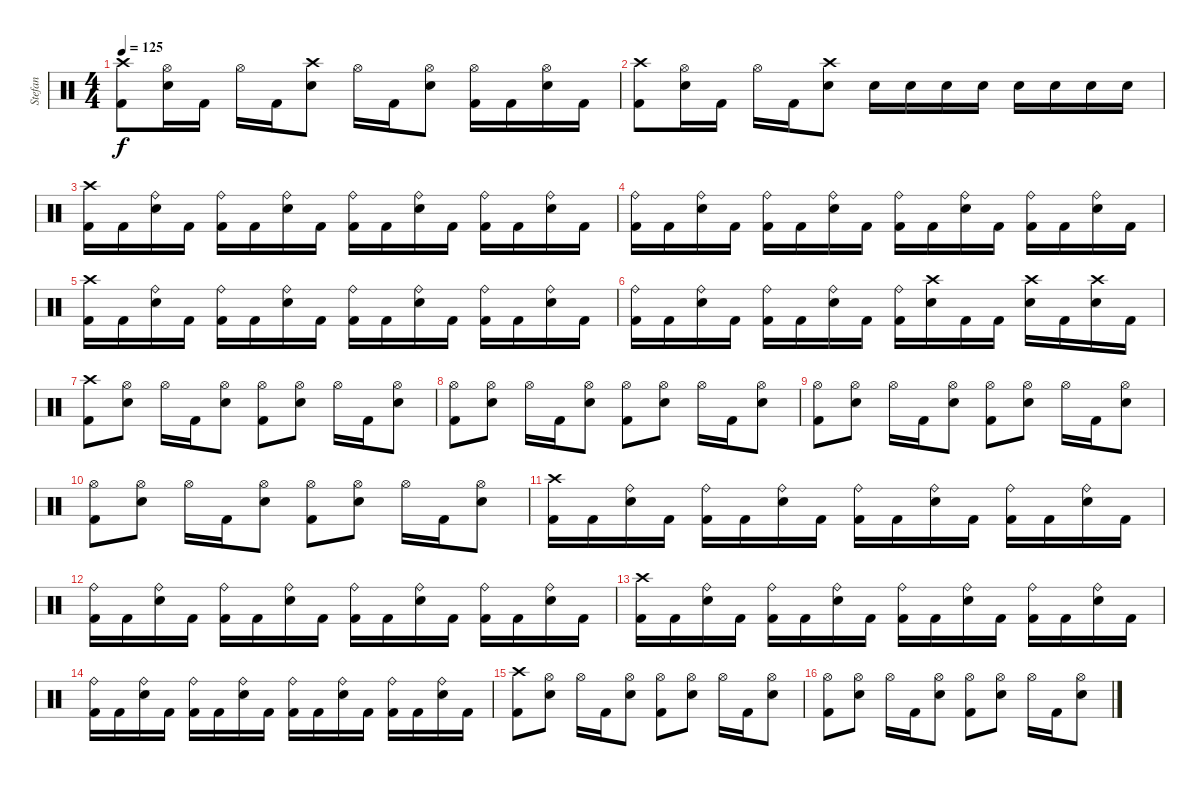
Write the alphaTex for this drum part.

\track ("Stefan" "Stefan") {instrument percussion}
\staff {score}
\articulation defaults
\ts (4 4)
\tempo 125
\clef neutral
\ks c
("Crash high (hit)" "Kick (hit) 2").8{dy f} ("Hi-Hat (open)" "Electric Snare (hit)").16 "Kick (hit) 2".16 "Hi-Hat (open)".16 "Kick (hit) 2".16 ("Crash high (hit)" "Electric Snare (hit)").8 "Hi-Hat (open)".16 "Kick (hit) 2".16 ("Hi-Hat (open)" "Electric Snare (hit)").8 ("Hi-Hat (open)" "Kick (hit) 2").16 "Kick (hit) 2".16 ("Hi-Hat (open)" "Electric Snare (hit)").16 "Kick (hit) 2".16 |
("Crash high (hit)" "Kick (hit) 2").8 ("Hi-Hat (open)" "Electric Snare (hit)").16 "Kick (hit) 2".16 "Hi-Hat (open)".16 "Kick (hit) 2".16 ("Crash high (hit)" "Electric Snare (hit)").8 "Electric Snare (hit)".16 "Electric Snare (hit)".16 "Electric Snare (hit)".16 "Electric Snare (hit)".16 "Electric Snare (hit)".16 "Electric Snare (hit)".16 "Electric Snare (hit)".16 "Electric Snare (hit)".16 |
("Crash high (hit)" "Kick (hit) 2").16 "Kick (hit) 2".16 ("Ride (bell)" "Electric Snare (hit)").16 "Kick (hit) 2".16 ("Ride (bell)" "Kick (hit) 2").16 "Kick (hit) 2".16 ("Ride (bell)" "Electric Snare (hit)").16 "Kick (hit) 2".16 ("Ride (bell)" "Kick (hit) 2").16 "Kick (hit) 2".16 ("Ride (bell)" "Electric Snare (hit)").16 "Kick (hit) 2".16 ("Ride (bell)" "Kick (hit) 2").16 "Kick (hit) 2".16 ("Ride (bell)" "Electric Snare (hit)").16 "Kick (hit) 2".16 |
("Ride (bell)" "Kick (hit) 2").16 "Kick (hit) 2".16 ("Ride (bell)" "Electric Snare (hit)").16 "Kick (hit) 2".16 ("Ride (bell)" "Kick (hit) 2").16 "Kick (hit) 2".16 ("Ride (bell)" "Electric Snare (hit)").16 "Kick (hit) 2".16 ("Ride (bell)" "Kick (hit) 2").16 "Kick (hit) 2".16 ("Ride (bell)" "Electric Snare (hit)").16 "Kick (hit) 2".16 ("Ride (bell)" "Kick (hit) 2").16 "Kick (hit) 2".16 ("Ride (bell)" "Electric Snare (hit)").16 "Kick (hit) 2".16 |
("Crash high (hit)" "Kick (hit) 2").16 "Kick (hit) 2".16 ("Ride (bell)" "Electric Snare (hit)").16 "Kick (hit) 2".16 ("Ride (bell)" "Kick (hit) 2").16 "Kick (hit) 2".16 ("Ride (bell)" "Electric Snare (hit)").16 "Kick (hit) 2".16 ("Ride (bell)" "Kick (hit) 2").16 "Kick (hit) 2".16 ("Ride (bell)" "Electric Snare (hit)").16 "Kick (hit) 2".16 ("Ride (bell)" "Kick (hit) 2").16 "Kick (hit) 2".16 ("Ride (bell)" "Electric Snare (hit)").16 "Kick (hit) 2".16 |
("Ride (bell)" "Kick (hit) 2").16 "Kick (hit) 2".16 ("Ride (bell)" "Electric Snare (hit)").16 "Kick (hit) 2".16 ("Ride (bell)" "Kick (hit) 2").16 "Kick (hit) 2".16 ("Ride (bell)" "Electric Snare (hit)").16 "Kick (hit) 2".16 ("Ride (bell)" "Kick (hit) 2").16 ("Crash high (hit)" "Electric Snare (hit)").16 "Kick (hit) 2".16 "Kick (hit) 2".16 ("Crash high (hit)" "Electric Snare (hit)").16 "Kick (hit) 2".16 ("Crash high (hit)" "Electric Snare (hit)").16 "Kick (hit) 2".16 |
("Crash high (hit)" "Kick (hit) 2").8 ("Hi-Hat (open)" "Electric Snare (hit)").8 "Hi-Hat (open)".16 "Kick (hit) 2".16 ("Hi-Hat (open)" "Electric Snare (hit)").8 ("Hi-Hat (open)" "Kick (hit) 2").8 ("Hi-Hat (open)" "Electric Snare (hit)").8 "Hi-Hat (open)".16 "Kick (hit) 2".16 ("Hi-Hat (open)" "Electric Snare (hit)").8 |
("Hi-Hat (open)" "Kick (hit) 2").8 ("Hi-Hat (open)" "Electric Snare (hit)").8 "Hi-Hat (open)".16 "Kick (hit) 2".16 ("Hi-Hat (open)" "Electric Snare (hit)").8 ("Hi-Hat (open)" "Kick (hit) 2").8 ("Hi-Hat (open)" "Electric Snare (hit)").8 "Hi-Hat (open)".16 "Kick (hit) 2".16 ("Hi-Hat (open)" "Electric Snare (hit)").8 |
("Hi-Hat (open)" "Kick (hit) 2").8 ("Hi-Hat (open)" "Electric Snare (hit)").8 "Hi-Hat (open)".16 "Kick (hit) 2".16 ("Hi-Hat (open)" "Electric Snare (hit)").8 ("Hi-Hat (open)" "Kick (hit) 2").8 ("Hi-Hat (open)" "Electric Snare (hit)").8 "Hi-Hat (open)".16 "Kick (hit) 2".16 ("Hi-Hat (open)" "Electric Snare (hit)").8 |
("Hi-Hat (open)" "Kick (hit) 2").8 ("Hi-Hat (open)" "Electric Snare (hit)").8 "Hi-Hat (open)".16 "Kick (hit) 2".16 ("Hi-Hat (open)" "Electric Snare (hit)").8 ("Hi-Hat (open)" "Kick (hit) 2").8 ("Hi-Hat (open)" "Electric Snare (hit)").8 "Hi-Hat (open)".16 "Kick (hit) 2".16 ("Hi-Hat (open)" "Electric Snare (hit)").8 |
("Crash high (hit)" "Kick (hit) 2").16 "Kick (hit) 2".16 ("Ride (bell)" "Electric Snare (hit)").16 "Kick (hit) 2".16 ("Ride (bell)" "Kick (hit) 2").16 "Kick (hit) 2".16 ("Ride (bell)" "Electric Snare (hit)").16 "Kick (hit) 2".16 ("Ride (bell)" "Kick (hit) 2").16 "Kick (hit) 2".16 ("Ride (bell)" "Electric Snare (hit)").16 "Kick (hit) 2".16 ("Ride (bell)" "Kick (hit) 2").16 "Kick (hit) 2".16 ("Ride (bell)" "Electric Snare (hit)").16 "Kick (hit) 2".16 |
("Ride (bell)" "Kick (hit) 2").16 "Kick (hit) 2".16 ("Ride (bell)" "Electric Snare (hit)").16 "Kick (hit) 2".16 ("Ride (bell)" "Kick (hit) 2").16 "Kick (hit) 2".16 ("Ride (bell)" "Electric Snare (hit)").16 "Kick (hit) 2".16 ("Ride (bell)" "Kick (hit) 2").16 "Kick (hit) 2".16 ("Ride (bell)" "Electric Snare (hit)").16 "Kick (hit) 2".16 ("Ride (bell)" "Kick (hit) 2").16 "Kick (hit) 2".16 ("Ride (bell)" "Electric Snare (hit)").16 "Kick (hit) 2".16 |
("Crash high (hit)" "Kick (hit) 2").16 "Kick (hit) 2".16 ("Ride (bell)" "Electric Snare (hit)").16 "Kick (hit) 2".16 ("Ride (bell)" "Kick (hit) 2").16 "Kick (hit) 2".16 ("Ride (bell)" "Electric Snare (hit)").16 "Kick (hit) 2".16 ("Ride (bell)" "Kick (hit) 2").16 "Kick (hit) 2".16 ("Ride (bell)" "Electric Snare (hit)").16 "Kick (hit) 2".16 ("Ride (bell)" "Kick (hit) 2").16 "Kick (hit) 2".16 ("Ride (bell)" "Electric Snare (hit)").16 "Kick (hit) 2".16 |
("Ride (bell)" "Kick (hit) 2").16 "Kick (hit) 2".16 ("Ride (bell)" "Electric Snare (hit)").16 "Kick (hit) 2".16 ("Ride (bell)" "Kick (hit) 2").16 "Kick (hit) 2".16 ("Ride (bell)" "Electric Snare (hit)").16 "Kick (hit) 2".16 ("Ride (bell)" "Kick (hit) 2").16 "Kick (hit) 2".16 ("Ride (bell)" "Electric Snare (hit)").16 "Kick (hit) 2".16 ("Ride (bell)" "Kick (hit) 2").16 "Kick (hit) 2".16 ("Ride (bell)" "Electric Snare (hit)").16 "Kick (hit) 2".16 |
("Crash high (hit)" "Kick (hit) 2").8 ("Hi-Hat (open)" "Electric Snare (hit)").8 "Hi-Hat (open)".16 "Kick (hit) 2".16 ("Hi-Hat (open)" "Electric Snare (hit)").8 ("Hi-Hat (open)" "Kick (hit) 2").8 ("Hi-Hat (open)" "Electric Snare (hit)").8 "Hi-Hat (open)".16 "Kick (hit) 2".16 ("Hi-Hat (open)" "Electric Snare (hit)").8 |
("Hi-Hat (open)" "Kick (hit) 2").8 ("Hi-Hat (open)" "Electric Snare (hit)").8 "Hi-Hat (open)".16 "Kick (hit) 2".16 ("Hi-Hat (open)" "Electric Snare (hit)").8 ("Hi-Hat (open)" "Kick (hit) 2").8 ("Hi-Hat (open)" "Electric Snare (hit)").8 "Hi-Hat (open)".16 "Kick (hit) 2".16 ("Hi-Hat (open)" "Electric Snare (hit)").8
